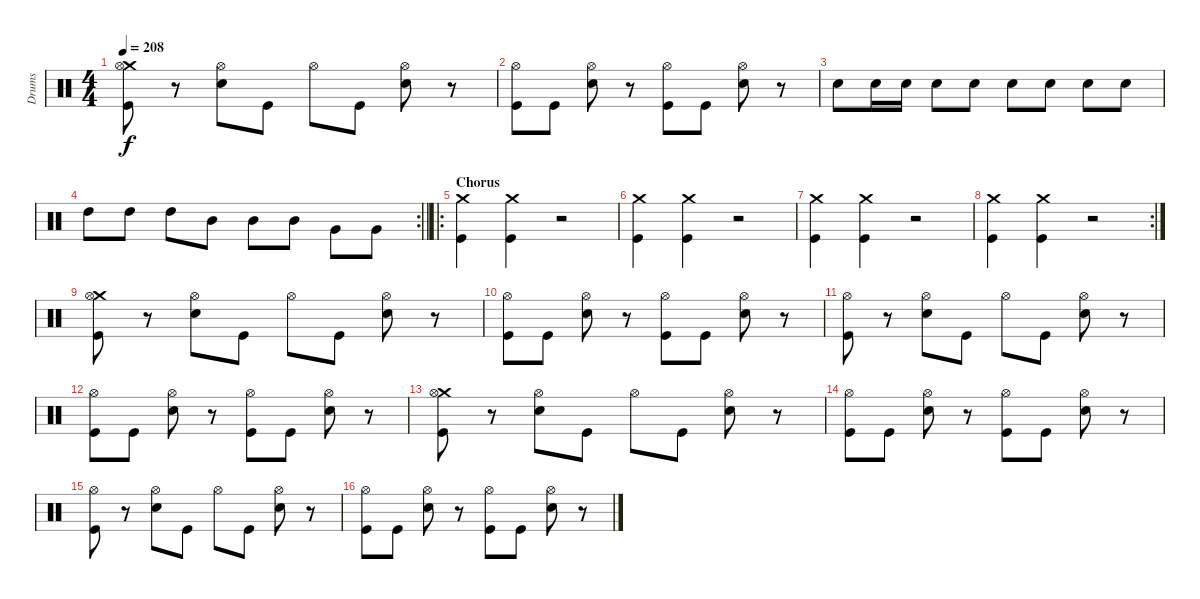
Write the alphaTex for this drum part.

\track ("Drums" "Drums") {instrument percussion}
\staff {score}
\articulation defaults
\ts (4 4)
\tempo 208
\clef neutral
\ks c
("Crash medium (hit)" "Hi-Hat (open)" "Kick (hit)").8{dy f} r.8 ("Hi-Hat (open)" "Electric Snare (hit)").8 "Kick (hit)".8 "Hi-Hat (open)".8 "Kick (hit)".8 ("Hi-Hat (open)" "Electric Snare (hit)").8 r.8 |
("Hi-Hat (open)" "Kick (hit)").8 "Kick (hit)".8 ("Hi-Hat (open)" "Electric Snare (hit)").8 r.8 ("Hi-Hat (open)" "Kick (hit)").8 "Kick (hit)".8 ("Hi-Hat (open)" "Electric Snare (hit)").8 r.8 |
"Electric Snare (hit)".8 "Electric Snare (hit)".16 "Electric Snare (hit)".16 "Electric Snare (hit)".8 "Electric Snare (hit)".8 "Electric Snare (hit)".8 "Electric Snare (hit)".8 "Electric Snare (hit)".8 "Electric Snare (hit)".8 |
\rc 2
\barLineRight lightlight "High Tom (hit)".8 "High Tom (hit)".8 "High Tom (hit)".8 "Mid Tom (hit)".8 "Mid Tom (hit)".8 "Mid Tom (hit)".8 "Very Low Tom (hit)".8{beam Down beam merge} "Very Low Tom (hit)".8{beam Down}
|
\ro
\section ("" "Chorus")
("Crash medium (hit)" "Kick (hit)").4 ("Crash medium (hit)" "Kick (hit)").4 r.2 |
("Crash medium (hit)" "Kick (hit)").4 ("Crash medium (hit)" "Kick (hit)").4 r.2 |
("Crash medium (hit)" "Kick (hit)").4 ("Crash medium (hit)" "Kick (hit)").4 r.2 |
\rc 2
("Crash medium (hit)" "Kick (hit)").4 ("Crash medium (hit)" "Kick (hit)").4 r.2 |
("Crash medium (hit)" "Hi-Hat (open)" "Kick (hit)").8 r.8 ("Hi-Hat (open)" "Electric Snare (hit)").8 "Kick (hit)".8 "Hi-Hat (open)".8 "Kick (hit)".8 ("Hi-Hat (open)" "Electric Snare (hit)").8 r.8 |
("Hi-Hat (open)" "Kick (hit)").8 "Kick (hit)".8 ("Hi-Hat (open)" "Electric Snare (hit)").8 r.8 ("Hi-Hat (open)" "Kick (hit)").8 "Kick (hit)".8 ("Hi-Hat (open)" "Electric Snare (hit)").8 r.8 |
("Hi-Hat (open)" "Kick (hit)").8 r.8 ("Hi-Hat (open)" "Electric Snare (hit)").8 "Kick (hit)".8 "Hi-Hat (open)".8 "Kick (hit)".8 ("Hi-Hat (open)" "Electric Snare (hit)").8 r.8 |
("Hi-Hat (open)" "Kick (hit)").8 "Kick (hit)".8 ("Hi-Hat (open)" "Electric Snare (hit)").8 r.8 ("Hi-Hat (open)" "Kick (hit)").8 "Kick (hit)".8 ("Hi-Hat (open)" "Electric Snare (hit)").8 r.8 |
("Crash medium (hit)" "Hi-Hat (open)" "Kick (hit)").8 r.8 ("Hi-Hat (open)" "Electric Snare (hit)").8 "Kick (hit)".8 "Hi-Hat (open)".8 "Kick (hit)".8 ("Hi-Hat (open)" "Electric Snare (hit)").8 r.8 |
("Hi-Hat (open)" "Kick (hit)").8 "Kick (hit)".8 ("Hi-Hat (open)" "Electric Snare (hit)").8 r.8 ("Hi-Hat (open)" "Kick (hit)").8 "Kick (hit)".8 ("Hi-Hat (open)" "Electric Snare (hit)").8 r.8 |
("Hi-Hat (open)" "Kick (hit)").8 r.8 ("Hi-Hat (open)" "Electric Snare (hit)").8 "Kick (hit)".8 "Hi-Hat (open)".8 "Kick (hit)".8 ("Hi-Hat (open)" "Electric Snare (hit)").8 r.8 |
("Hi-Hat (open)" "Kick (hit)").8 "Kick (hit)".8 ("Hi-Hat (open)" "Electric Snare (hit)").8 r.8 ("Hi-Hat (open)" "Kick (hit)").8 "Kick (hit)".8 ("Hi-Hat (open)" "Electric Snare (hit)").8 r.8
